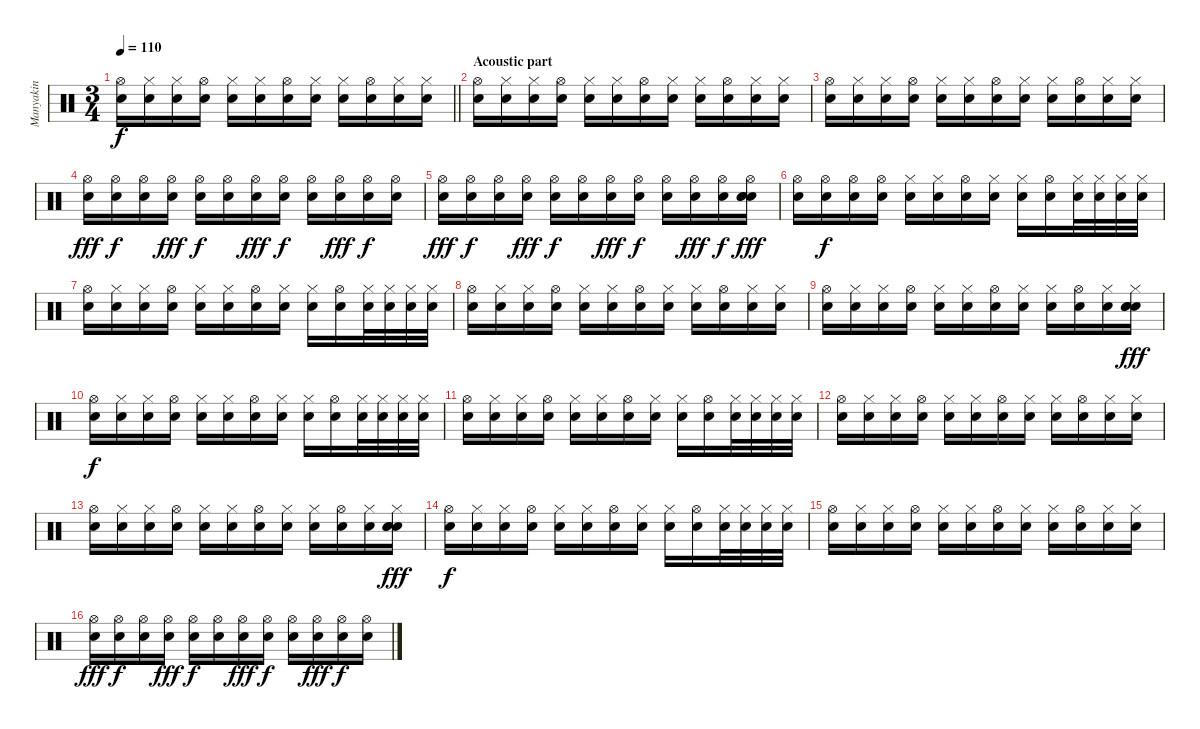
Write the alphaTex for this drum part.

\track ("Manyakin" "Manyakin") {instrument percussion}
\staff {score}
\articulation defaults
\ts (3 4)
\tempo 110
\clef neutral
\barLineRight lightlight
\ks c
("Hi-Hat (open)" "Snare (hit)"{x}).16{dy f} ("Hi-Hat (closed)" "Snare (hit)"{x}).16 ("Hi-Hat (closed)" "Snare (hit)"{x}).16 ("Hi-Hat (open)" "Snare (hit)"{x}).16 ("Hi-Hat (closed)" "Snare (hit)"{x}).16 ("Hi-Hat (closed)" "Snare (hit)"{x}).16 ("Hi-Hat (open)" "Snare (hit)"{x}).16 ("Hi-Hat (closed)" "Snare (hit)"{x}).16 ("Hi-Hat (closed)" "Snare (hit)"{x}).16 ("Hi-Hat (open)" "Snare (hit)"{x}).16 ("Hi-Hat (closed)" "Snare (hit)"{x}).16 ("Hi-Hat (closed)" "Snare (hit)"{x}).16 |
\section ("" "Acoustic part")
("Hi-Hat (open)" "Snare (hit)"{x}).16 ("Hi-Hat (closed)" "Snare (hit)"{x}).16 ("Hi-Hat (closed)" "Snare (hit)"{x}).16 ("Hi-Hat (open)" "Snare (hit)"{x}).16 ("Hi-Hat (closed)" "Snare (hit)"{x}).16 ("Hi-Hat (closed)" "Snare (hit)"{x}).16 ("Hi-Hat (open)" "Snare (hit)"{x}).16 ("Hi-Hat (closed)" "Snare (hit)"{x}).16 ("Hi-Hat (closed)" "Snare (hit)"{x}).16 ("Hi-Hat (open)" "Snare (hit)"{x}).16 ("Hi-Hat (closed)" "Snare (hit)"{x}).16 ("Hi-Hat (closed)" "Snare (hit)"{x}).16 |
("Hi-Hat (open)" "Snare (hit)"{x}).16 ("Hi-Hat (closed)" "Snare (hit)"{x}).16 ("Hi-Hat (closed)" "Snare (hit)"{x}).16 ("Hi-Hat (open)" "Snare (hit)"{x}).16 ("Hi-Hat (closed)" "Snare (hit)"{x}).16 ("Hi-Hat (closed)" "Snare (hit)"{x}).16 ("Hi-Hat (open)" "Snare (hit)"{x}).16 ("Hi-Hat (closed)" "Snare (hit)"{x}).16 ("Hi-Hat (closed)" "Snare (hit)"{x}).16 ("Hi-Hat (open)" "Snare (hit)"{x}).16 ("Hi-Hat (closed)" "Snare (hit)"{x}).16 ("Hi-Hat (closed)" "Snare (hit)"{x}).16 |
("Hi-Hat (open)" "Snare (hit)"{x}).16{dy fff} ("Hi-Hat (open)" "Snare (hit)"{x}).16{dy f} ("Hi-Hat (open)" "Snare (hit)"{x}).16 ("Hi-Hat (open)" "Snare (hit)"{x}).16{dy fff} ("Hi-Hat (open)" "Snare (hit)"{x}).16{dy f} ("Hi-Hat (open)" "Snare (hit)"{x}).16 ("Hi-Hat (open)" "Snare (hit)"{x}).16{dy fff} ("Hi-Hat (open)" "Snare (hit)"{x}).16{dy f} ("Hi-Hat (open)" "Snare (hit)"{x}).16 ("Hi-Hat (open)" "Snare (hit)"{x}).16{dy fff} ("Hi-Hat (open)" "Snare (hit)"{x}).16{dy f} ("Hi-Hat (open)" "Snare (hit)"{x}).16 |
("Hi-Hat (open)" "Snare (hit)"{x}).16{dy fff} ("Hi-Hat (open)" "Snare (hit)"{x}).16{dy f} ("Hi-Hat (open)" "Snare (hit)"{x}).16 ("Hi-Hat (open)" "Snare (hit)"{x}).16{dy fff} ("Hi-Hat (open)" "Snare (hit)"{x}).16{dy f} ("Hi-Hat (open)" "Snare (hit)"{x}).16 ("Hi-Hat (open)" "Snare (hit)"{x}).16{dy fff} ("Hi-Hat (open)" "Snare (hit)"{x}).16{dy f} ("Hi-Hat (open)" "Snare (hit)"{x}).16 ("Hi-Hat (open)" "Snare (hit)"{x}).16{dy fff} ("Hi-Hat (open)" "Snare (hit)"{x}).16{dy f} ("Hi-Hat (open)" "Electric Snare (hit)" "Electric Snare (hit)" "Snare (hit)"{x}).16{dy fff} |
("Hi-Hat (open)" "Snare (hit)"{x}).16 ("Hi-Hat (open)" "Snare (hit)"{x}).16{dy f} ("Hi-Hat (open)" "Snare (hit)"{x}).16 ("Hi-Hat (open)" "Snare (hit)"{x}).16 ("Hi-Hat (closed)" "Snare (hit)"{x}).16 ("Hi-Hat (closed)" "Snare (hit)"{x}).16 ("Hi-Hat (open)" "Snare (hit)"{x}).16 ("Hi-Hat (closed)" "Snare (hit)"{x}).16 ("Hi-Hat (closed)" "Snare (hit)"{x}).16 ("Hi-Hat (open)" "Snare (hit)"{x}).16 ("Hi-Hat (closed)" "Snare (hit)"{x}).32 ("Hi-Hat (closed)" "Snare (hit)"{x}).32 ("Hi-Hat (closed)" "Snare (hit)"{x}).32 ("Hi-Hat (closed)" "Snare (hit)"{x}).32 |
("Hi-Hat (open)" "Snare (hit)"{x}).16 ("Hi-Hat (closed)" "Snare (hit)"{x}).16 ("Hi-Hat (closed)" "Snare (hit)"{x}).16 ("Hi-Hat (open)" "Snare (hit)"{x}).16 ("Hi-Hat (closed)" "Snare (hit)"{x}).16 ("Hi-Hat (closed)" "Snare (hit)"{x}).16 ("Hi-Hat (open)" "Snare (hit)"{x}).16 ("Hi-Hat (closed)" "Snare (hit)"{x}).16 ("Hi-Hat (closed)" "Snare (hit)"{x}).16 ("Hi-Hat (open)" "Snare (hit)"{x}).16 ("Hi-Hat (closed)" "Snare (hit)"{x}).32 ("Hi-Hat (closed)" "Snare (hit)"{x}).32 ("Hi-Hat (closed)" "Snare (hit)"{x}).32 ("Hi-Hat (closed)" "Snare (hit)"{x}).32 |
("Hi-Hat (open)" "Snare (hit)"{x}).16 ("Hi-Hat (closed)" "Snare (hit)"{x}).16 ("Hi-Hat (closed)" "Snare (hit)"{x}).16 ("Hi-Hat (open)" "Snare (hit)"{x}).16 ("Hi-Hat (closed)" "Snare (hit)"{x}).16 ("Hi-Hat (closed)" "Snare (hit)"{x}).16 ("Hi-Hat (open)" "Snare (hit)"{x}).16 ("Hi-Hat (closed)" "Snare (hit)"{x}).16 ("Hi-Hat (closed)" "Snare (hit)"{x}).16 ("Hi-Hat (open)" "Snare (hit)"{x}).16 ("Hi-Hat (closed)" "Snare (hit)"{x}).16 ("Hi-Hat (closed)" "Snare (hit)"{x}).16 |
("Hi-Hat (open)" "Snare (hit)"{x}).16 ("Hi-Hat (closed)" "Snare (hit)"{x}).16 ("Hi-Hat (closed)" "Snare (hit)"{x}).16 ("Hi-Hat (open)" "Snare (hit)"{x}).16 ("Hi-Hat (closed)" "Snare (hit)"{x}).16 ("Hi-Hat (closed)" "Snare (hit)"{x}).16 ("Hi-Hat (open)" "Snare (hit)"{x}).16 ("Hi-Hat (closed)" "Snare (hit)"{x}).16 ("Hi-Hat (closed)" "Snare (hit)"{x}).16 ("Hi-Hat (open)" "Snare (hit)"{x}).16 ("Hi-Hat (closed)" "Snare (hit)"{x}).16 ("Hi-Hat (closed)" "Electric Snare (hit)" "Electric Snare (hit)" "Snare (hit)"{x}).16{dy fff} |
("Hi-Hat (open)" "Snare (hit)"{x}).16{dy f} ("Hi-Hat (closed)" "Snare (hit)"{x}).16 ("Hi-Hat (closed)" "Snare (hit)"{x}).16 ("Hi-Hat (open)" "Snare (hit)"{x}).16 ("Hi-Hat (closed)" "Snare (hit)"{x}).16 ("Hi-Hat (closed)" "Snare (hit)"{x}).16 ("Hi-Hat (open)" "Snare (hit)"{x}).16 ("Hi-Hat (closed)" "Snare (hit)"{x}).16 ("Hi-Hat (closed)" "Snare (hit)"{x}).16 ("Hi-Hat (open)" "Snare (hit)"{x}).16 ("Hi-Hat (closed)" "Snare (hit)"{x}).32 ("Hi-Hat (closed)" "Snare (hit)"{x}).32 ("Hi-Hat (closed)" "Snare (hit)"{x}).32 ("Hi-Hat (closed)" "Snare (hit)"{x}).32 |
("Hi-Hat (open)" "Snare (hit)"{x}).16 ("Hi-Hat (closed)" "Snare (hit)"{x}).16 ("Hi-Hat (closed)" "Snare (hit)"{x}).16 ("Hi-Hat (open)" "Snare (hit)"{x}).16 ("Hi-Hat (closed)" "Snare (hit)"{x}).16 ("Hi-Hat (closed)" "Snare (hit)"{x}).16 ("Hi-Hat (open)" "Snare (hit)"{x}).16 ("Hi-Hat (closed)" "Snare (hit)"{x}).16 ("Hi-Hat (closed)" "Snare (hit)"{x}).16 ("Hi-Hat (open)" "Snare (hit)"{x}).16 ("Hi-Hat (closed)" "Snare (hit)"{x}).32 ("Hi-Hat (closed)" "Snare (hit)"{x}).32 ("Hi-Hat (closed)" "Snare (hit)"{x}).32 ("Hi-Hat (closed)" "Snare (hit)"{x}).32 |
("Hi-Hat (open)" "Snare (hit)"{x}).16 ("Hi-Hat (closed)" "Snare (hit)"{x}).16 ("Hi-Hat (closed)" "Snare (hit)"{x}).16 ("Hi-Hat (open)" "Snare (hit)"{x}).16 ("Hi-Hat (closed)" "Snare (hit)"{x}).16 ("Hi-Hat (closed)" "Snare (hit)"{x}).16 ("Hi-Hat (open)" "Snare (hit)"{x}).16 ("Hi-Hat (closed)" "Snare (hit)"{x}).16 ("Hi-Hat (closed)" "Snare (hit)"{x}).16 ("Hi-Hat (open)" "Snare (hit)"{x}).16 ("Hi-Hat (closed)" "Snare (hit)"{x}).16 ("Hi-Hat (closed)" "Snare (hit)"{x}).16 |
("Hi-Hat (open)" "Snare (hit)"{x}).16 ("Hi-Hat (closed)" "Snare (hit)"{x}).16 ("Hi-Hat (closed)" "Snare (hit)"{x}).16 ("Hi-Hat (open)" "Snare (hit)"{x}).16 ("Hi-Hat (closed)" "Snare (hit)"{x}).16 ("Hi-Hat (closed)" "Snare (hit)"{x}).16 ("Hi-Hat (open)" "Snare (hit)"{x}).16 ("Hi-Hat (closed)" "Snare (hit)"{x}).16 ("Hi-Hat (closed)" "Snare (hit)"{x}).16 ("Hi-Hat (open)" "Snare (hit)"{x}).16 ("Hi-Hat (closed)" "Snare (hit)"{x}).16 ("Hi-Hat (closed)" "Electric Snare (hit)" "Electric Snare (hit)" "Snare (hit)"{x}).16{dy fff} |
("Hi-Hat (open)" "Snare (hit)"{x}).16{dy f} ("Hi-Hat (closed)" "Snare (hit)"{x}).16 ("Hi-Hat (closed)" "Snare (hit)"{x}).16 ("Hi-Hat (open)" "Snare (hit)"{x}).16 ("Hi-Hat (closed)" "Snare (hit)"{x}).16 ("Hi-Hat (closed)" "Snare (hit)"{x}).16 ("Hi-Hat (open)" "Snare (hit)"{x}).16 ("Hi-Hat (closed)" "Snare (hit)"{x}).16 ("Hi-Hat (closed)" "Snare (hit)"{x}).16 ("Hi-Hat (open)" "Snare (hit)"{x}).16 ("Hi-Hat (closed)" "Snare (hit)"{x}).32 ("Hi-Hat (closed)" "Snare (hit)"{x}).32 ("Hi-Hat (closed)" "Snare (hit)"{x}).32 ("Hi-Hat (closed)" "Snare (hit)"{x}).32 |
("Hi-Hat (open)" "Snare (hit)"{x}).16 ("Hi-Hat (closed)" "Snare (hit)"{x}).16 ("Hi-Hat (closed)" "Snare (hit)"{x}).16 ("Hi-Hat (open)" "Snare (hit)"{x}).16 ("Hi-Hat (closed)" "Snare (hit)"{x}).16 ("Hi-Hat (closed)" "Snare (hit)"{x}).16 ("Hi-Hat (open)" "Snare (hit)"{x}).16 ("Hi-Hat (closed)" "Snare (hit)"{x}).16 ("Hi-Hat (closed)" "Snare (hit)"{x}).16 ("Hi-Hat (open)" "Snare (hit)"{x}).16 ("Hi-Hat (closed)" "Snare (hit)"{x}).16 ("Hi-Hat (closed)" "Snare (hit)"{x}).16 |
("Hi-Hat (open)" "Snare (hit)"{x}).16{dy fff} ("Hi-Hat (open)" "Snare (hit)"{x}).16{dy f} ("Hi-Hat (open)" "Snare (hit)"{x}).16 ("Hi-Hat (open)" "Snare (hit)"{x}).16{dy fff} ("Hi-Hat (open)" "Snare (hit)"{x}).16{dy f} ("Hi-Hat (open)" "Snare (hit)"{x}).16 ("Hi-Hat (open)" "Snare (hit)"{x}).16{dy fff} ("Hi-Hat (open)" "Snare (hit)"{x}).16{dy f} ("Hi-Hat (open)" "Snare (hit)"{x}).16 ("Hi-Hat (open)" "Snare (hit)"{x}).16{dy fff} ("Hi-Hat (open)" "Snare (hit)"{x}).16{dy f} ("Hi-Hat (open)" "Snare (hit)"{x}).16
